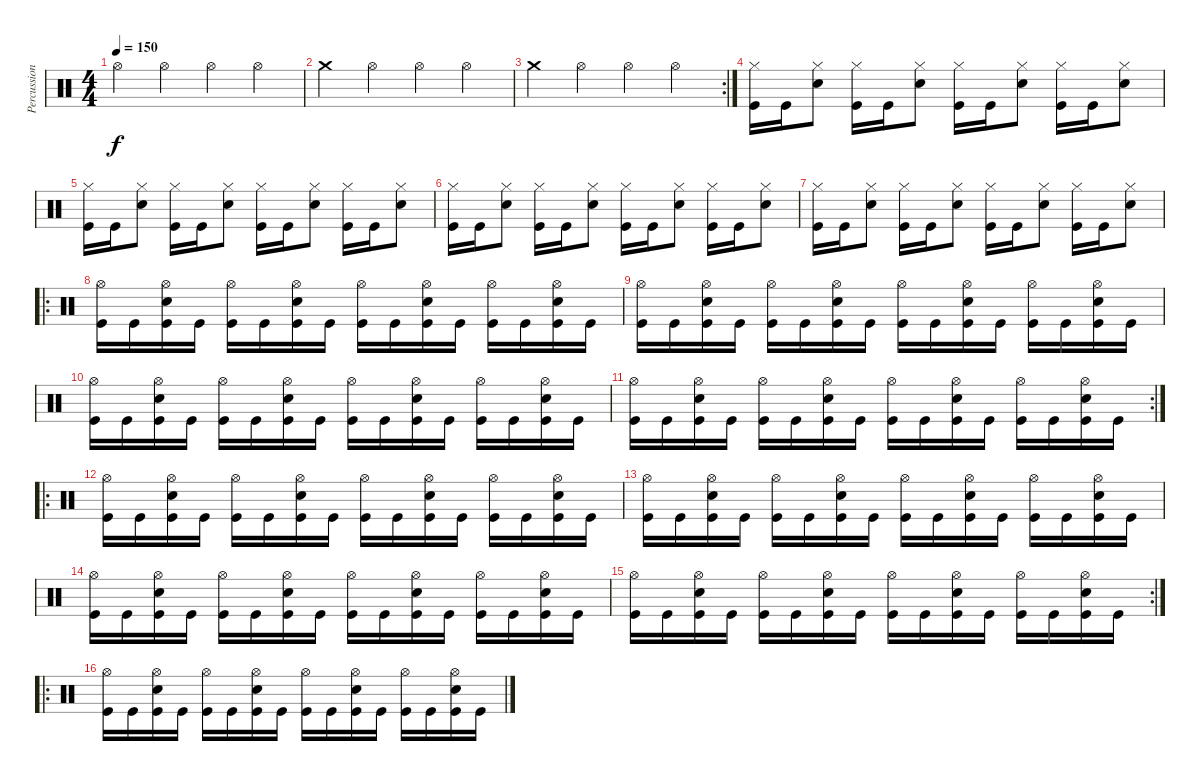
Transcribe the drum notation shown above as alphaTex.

\track ("Percussion" "Percussion") {instrument percussion}
\staff {score}
\articulation defaults
\ts (4 4)
\tempo 150
\clef neutral
\ks c "Hi-Hat (open)".4{dy f} "Hi-Hat (open)".4 "Hi-Hat (open)".4 "Hi-Hat (open)".4
|
"Crash medium (hit)".4 "Hi-Hat (open)".4 "Hi-Hat (open)".4 "Hi-Hat (open)".4 |
\rc 2 "Crash medium (hit)".4 "Hi-Hat (open)".4 "Hi-Hat (open)".4 "Hi-Hat (open)".4
|
("Hi-Hat (closed)" "Kick (hit)").16 "Kick (hit)".16 ("Hi-Hat (closed)" "Snare (hit) 2").8 ("Hi-Hat (closed)" "Kick (hit)").16 "Kick (hit)".16 ("Hi-Hat (closed)" "Snare (hit) 2").8 ("Hi-Hat (closed)" "Kick (hit)").16 "Kick (hit)".16 ("Hi-Hat (closed)" "Snare (hit) 2").8 ("Hi-Hat (closed)" "Kick (hit)").16 "Kick (hit)".16 ("Hi-Hat (closed)" "Snare (hit) 2").8 |
("Hi-Hat (closed)" "Kick (hit)").16 "Kick (hit)".16 ("Hi-Hat (closed)" "Snare (hit) 2").8 ("Hi-Hat (closed)" "Kick (hit)").16 "Kick (hit)".16 ("Hi-Hat (closed)" "Snare (hit) 2").8 ("Hi-Hat (closed)" "Kick (hit)").16 "Kick (hit)".16 ("Hi-Hat (closed)" "Snare (hit) 2").8 ("Hi-Hat (closed)" "Kick (hit)").16 "Kick (hit)".16 ("Hi-Hat (closed)" "Snare (hit) 2").8 |
("Hi-Hat (closed)" "Kick (hit)").16 "Kick (hit)".16 ("Hi-Hat (closed)" "Snare (hit) 2").8 ("Hi-Hat (closed)" "Kick (hit)").16 "Kick (hit)".16 ("Hi-Hat (closed)" "Snare (hit) 2").8 ("Hi-Hat (closed)" "Kick (hit)").16 "Kick (hit)".16 ("Hi-Hat (closed)" "Snare (hit) 2").8 ("Hi-Hat (closed)" "Kick (hit)").16 "Kick (hit)".16 ("Hi-Hat (closed)" "Snare (hit) 2").8 |
("Hi-Hat (closed)" "Kick (hit)").16 "Kick (hit)".16 ("Hi-Hat (closed)" "Snare (hit) 2").8 ("Hi-Hat (closed)" "Kick (hit)").16 "Kick (hit)".16 ("Hi-Hat (closed)" "Snare (hit) 2").8 ("Hi-Hat (closed)" "Kick (hit)").16 "Kick (hit)".16 ("Hi-Hat (closed)" "Snare (hit) 2").8 ("Hi-Hat (closed)" "Kick (hit)").16 "Kick (hit)".16 ("Hi-Hat (closed)" "Snare (hit) 2").8 |
\ro
("Hi-Hat (open)" "Kick (hit)").16 "Kick (hit)".16 ("Hi-Hat (open)" "Snare (hit) 2" "Kick (hit)").16 "Kick (hit)".16 ("Hi-Hat (open)" "Kick (hit)").16 "Kick (hit)".16 ("Hi-Hat (open)" "Snare (hit) 2" "Kick (hit)").16 "Kick (hit)".16 ("Hi-Hat (open)" "Kick (hit)").16 "Kick (hit)".16 ("Hi-Hat (open)" "Snare (hit) 2" "Kick (hit)").16 "Kick (hit)".16 ("Hi-Hat (open)" "Kick (hit)").16 "Kick (hit)".16 ("Hi-Hat (open)" "Snare (hit) 2" "Kick (hit)").16 "Kick (hit)".16 |
("Hi-Hat (open)" "Kick (hit)").16 "Kick (hit)".16 ("Hi-Hat (open)" "Snare (hit) 2" "Kick (hit)").16 "Kick (hit)".16 ("Hi-Hat (open)" "Kick (hit)").16 "Kick (hit)".16 ("Hi-Hat (open)" "Snare (hit) 2" "Kick (hit)").16 "Kick (hit)".16 ("Hi-Hat (open)" "Kick (hit)").16 "Kick (hit)".16 ("Hi-Hat (open)" "Snare (hit) 2" "Kick (hit)").16 "Kick (hit)".16 ("Hi-Hat (open)" "Kick (hit)").16 "Kick (hit)".16 ("Hi-Hat (open)" "Snare (hit) 2" "Kick (hit)").16 "Kick (hit)".16 |
("Hi-Hat (open)" "Kick (hit)").16 "Kick (hit)".16 ("Hi-Hat (open)" "Snare (hit) 2" "Kick (hit)").16 "Kick (hit)".16 ("Hi-Hat (open)" "Kick (hit)").16 "Kick (hit)".16 ("Hi-Hat (open)" "Snare (hit) 2" "Kick (hit)").16 "Kick (hit)".16 ("Hi-Hat (open)" "Kick (hit)").16 "Kick (hit)".16 ("Hi-Hat (open)" "Snare (hit) 2" "Kick (hit)").16 "Kick (hit)".16 ("Hi-Hat (open)" "Kick (hit)").16 "Kick (hit)".16 ("Hi-Hat (open)" "Snare (hit) 2" "Kick (hit)").16 "Kick (hit)".16 |
\rc 2
("Hi-Hat (open)" "Kick (hit)").16 "Kick (hit)".16 ("Hi-Hat (open)" "Snare (hit) 2" "Kick (hit)").16 "Kick (hit)".16 ("Hi-Hat (open)" "Kick (hit)").16 "Kick (hit)".16 ("Hi-Hat (open)" "Snare (hit) 2" "Kick (hit)").16 "Kick (hit)".16 ("Hi-Hat (open)" "Kick (hit)").16 "Kick (hit)".16 ("Hi-Hat (open)" "Snare (hit) 2" "Kick (hit)").16 "Kick (hit)".16 ("Hi-Hat (open)" "Kick (hit)").16 "Kick (hit)".16 ("Hi-Hat (open)" "Snare (hit) 2" "Kick (hit)").16 "Kick (hit)".16 |
\ro
("Hi-Hat (open)" "Kick (hit)").16 "Kick (hit)".16 ("Hi-Hat (open)" "Snare (hit) 2" "Kick (hit)").16 "Kick (hit)".16 ("Hi-Hat (open)" "Kick (hit)").16 "Kick (hit)".16 ("Hi-Hat (open)" "Snare (hit) 2" "Kick (hit)").16 "Kick (hit)".16 ("Hi-Hat (open)" "Kick (hit)").16 "Kick (hit)".16 ("Hi-Hat (open)" "Snare (hit) 2" "Kick (hit)").16 "Kick (hit)".16 ("Hi-Hat (open)" "Kick (hit)").16 "Kick (hit)".16 ("Hi-Hat (open)" "Snare (hit) 2" "Kick (hit)").16 "Kick (hit)".16 |
("Hi-Hat (open)" "Kick (hit)").16 "Kick (hit)".16 ("Hi-Hat (open)" "Snare (hit) 2" "Kick (hit)").16 "Kick (hit)".16 ("Hi-Hat (open)" "Kick (hit)").16 "Kick (hit)".16 ("Hi-Hat (open)" "Snare (hit) 2" "Kick (hit)").16 "Kick (hit)".16 ("Hi-Hat (open)" "Kick (hit)").16 "Kick (hit)".16 ("Hi-Hat (open)" "Snare (hit) 2" "Kick (hit)").16 "Kick (hit)".16 ("Hi-Hat (open)" "Kick (hit)").16 "Kick (hit)".16 ("Hi-Hat (open)" "Snare (hit) 2" "Kick (hit)").16 "Kick (hit)".16 |
("Hi-Hat (open)" "Kick (hit)").16 "Kick (hit)".16 ("Hi-Hat (open)" "Snare (hit) 2" "Kick (hit)").16 "Kick (hit)".16 ("Hi-Hat (open)" "Kick (hit)").16 "Kick (hit)".16 ("Hi-Hat (open)" "Snare (hit) 2" "Kick (hit)").16 "Kick (hit)".16 ("Hi-Hat (open)" "Kick (hit)").16 "Kick (hit)".16 ("Hi-Hat (open)" "Snare (hit) 2" "Kick (hit)").16 "Kick (hit)".16 ("Hi-Hat (open)" "Kick (hit)").16 "Kick (hit)".16 ("Hi-Hat (open)" "Snare (hit) 2" "Kick (hit)").16 "Kick (hit)".16 |
\rc 2
("Hi-Hat (open)" "Kick (hit)").16 "Kick (hit)".16 ("Hi-Hat (open)" "Snare (hit) 2" "Kick (hit)").16 "Kick (hit)".16 ("Hi-Hat (open)" "Kick (hit)").16 "Kick (hit)".16 ("Hi-Hat (open)" "Snare (hit) 2" "Kick (hit)").16 "Kick (hit)".16 ("Hi-Hat (open)" "Kick (hit)").16 "Kick (hit)".16 ("Hi-Hat (open)" "Snare (hit) 2" "Kick (hit)").16 "Kick (hit)".16 ("Hi-Hat (open)" "Kick (hit)").16 "Kick (hit)".16 ("Hi-Hat (open)" "Snare (hit) 2" "Kick (hit)").16 "Kick (hit)".16 |
\ro
("Hi-Hat (open)" "Kick (hit)").16 "Kick (hit)".16 ("Hi-Hat (open)" "Snare (hit) 2" "Kick (hit)").16 "Kick (hit)".16 ("Hi-Hat (open)" "Kick (hit)").16 "Kick (hit)".16 ("Hi-Hat (open)" "Snare (hit) 2" "Kick (hit)").16 "Kick (hit)".16 ("Hi-Hat (open)" "Kick (hit)").16 "Kick (hit)".16 ("Hi-Hat (open)" "Snare (hit) 2" "Kick (hit)").16 "Kick (hit)".16 ("Hi-Hat (open)" "Kick (hit)").16 "Kick (hit)".16 ("Hi-Hat (open)" "Snare (hit) 2" "Kick (hit)").16 "Kick (hit)".16
